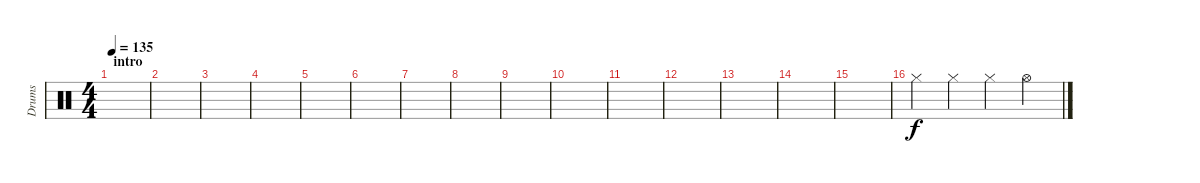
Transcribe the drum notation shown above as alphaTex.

\track ("Drums" "Drums") {instrument percussion}
\staff {score}
\articulation defaults
\ts (4 4)
\section ("" "intro")
\tempo 135
\clef neutral
\ks c
|
|
|
|
|
|
|
|
|
|
|
|
|
|
|
"Hi-Hat (closed)".4 "Hi-Hat (closed)".4 "Hi-Hat (closed)".4 "Hi-Hat (open)".4
